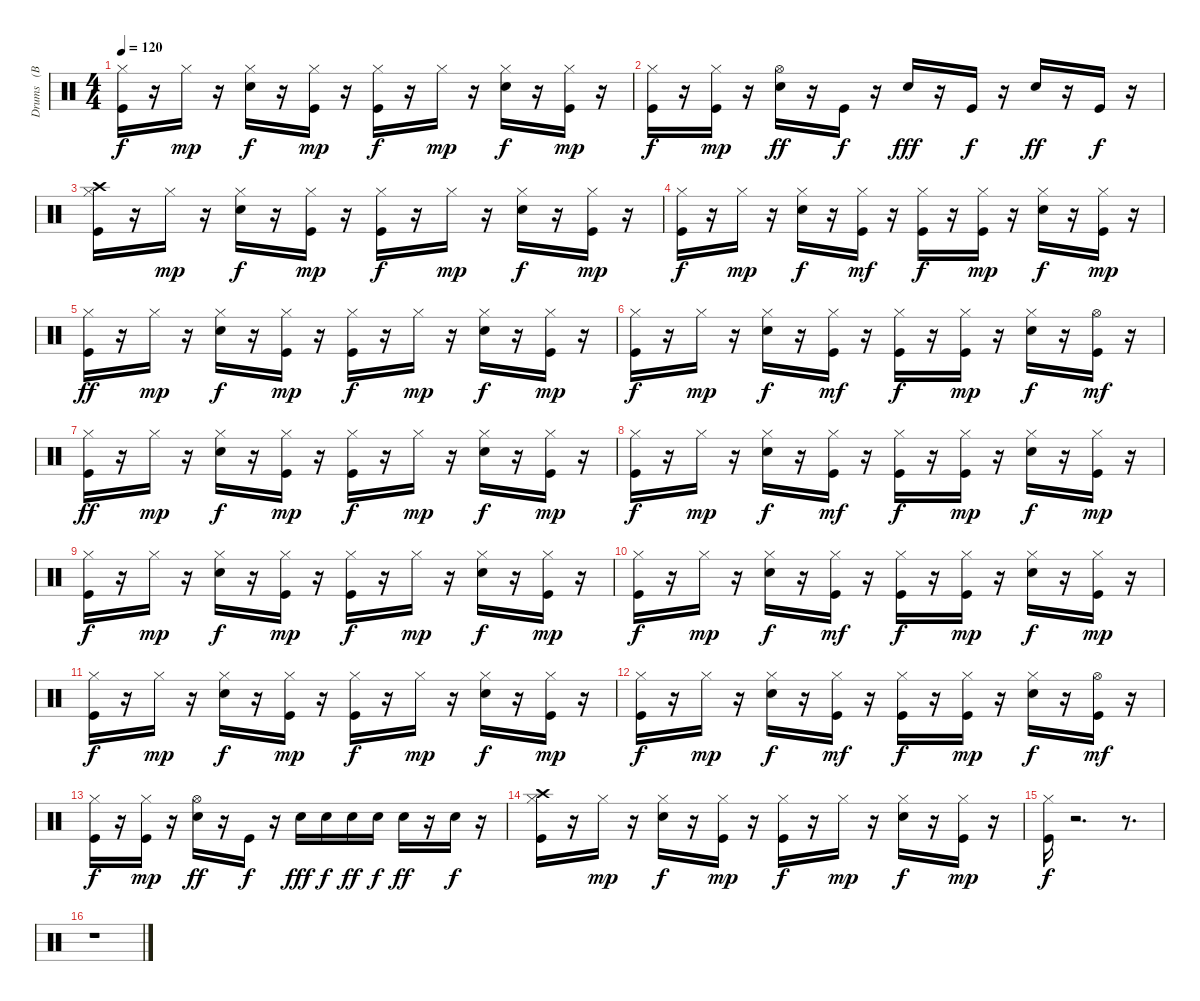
\track ("Drums   (BB)" "Drums   (B") {instrument percussion}
\staff {score}
\articulation defaults
\ts (4 4)
\tempo 120
\clef neutral
\ks c
("Kick (hit)" "Hi-Hat (closed)").16{dy f} r.16 "Hi-Hat (closed)".16{dy mp} r.16 ("Snare (hit) 2" "Hi-Hat (closed)").16{dy f} r.16 ("Kick (hit)" "Hi-Hat (closed)").16{dy mp} r.16 ("Kick (hit)" "Hi-Hat (closed)").16{dy f} r.16 "Hi-Hat (closed)".16{dy mp} r.16 ("Snare (hit) 2" "Hi-Hat (closed)").16{dy f} r.16 ("Kick (hit)" "Hi-Hat (closed)").16{dy mp} r.16 |
("Kick (hit)" "Hi-Hat (closed)").16{dy f} r.16 ("Kick (hit)" "Hi-Hat (closed)").16{dy mp} r.16 ("Snare (hit) 2" "Hi-Hat (open)").16{dy ff} r.16 "Kick (hit)".16{dy f} r.16 "Snare (hit) 2".16{dy fff} r.16 "Kick (hit)".16{dy f} r.16 "Snare (hit) 2".16{dy ff} r.16 "Kick (hit)".16{dy f} r.16 |
("Kick (hit)" "Hi-Hat (closed)" "Crash high (hit)").16 r.16 "Hi-Hat (closed)".16{dy mp} r.16 ("Snare (hit) 2" "Hi-Hat (closed)").16{dy f} r.16 ("Kick (hit)" "Hi-Hat (closed)").16{dy mp} r.16 ("Kick (hit)" "Hi-Hat (closed)").16{dy f} r.16 "Hi-Hat (closed)".16{dy mp} r.16 ("Snare (hit) 2" "Hi-Hat (closed)").16{dy f} r.16 ("Kick (hit)" "Hi-Hat (closed)").16{dy mp} r.16 |
("Kick (hit)" "Hi-Hat (closed)").16{dy f} r.16 "Hi-Hat (closed)".16{dy mp} r.16 ("Snare (hit) 2" "Hi-Hat (closed)").16{dy f} r.16 ("Kick (hit)" "Hi-Hat (closed)").16{dy mf} r.16 ("Kick (hit)" "Hi-Hat (closed)").16{dy f} r.16 ("Kick (hit)" "Hi-Hat (closed)").16{dy mp} r.16 ("Snare (hit) 2" "Hi-Hat (closed)").16{dy f} r.16 ("Kick (hit)" "Hi-Hat (closed)").16{dy mp} r.16 |
("Kick (hit)" "Hi-Hat (closed)").16{dy ff} r.16 "Hi-Hat (closed)".16{dy mp} r.16 ("Snare (hit) 2" "Hi-Hat (closed)").16{dy f} r.16 ("Kick (hit)" "Hi-Hat (closed)").16{dy mp} r.16 ("Kick (hit)" "Hi-Hat (closed)").16{dy f} r.16 "Hi-Hat (closed)".16{dy mp} r.16 ("Snare (hit) 2" "Hi-Hat (closed)").16{dy f} r.16 ("Kick (hit)" "Hi-Hat (closed)").16{dy mp} r.16 |
("Kick (hit)" "Hi-Hat (closed)").16{dy f} r.16 "Hi-Hat (closed)".16{dy mp} r.16 ("Snare (hit) 2" "Hi-Hat (closed)").16{dy f} r.16 ("Kick (hit)" "Hi-Hat (closed)").16{dy mf} r.16 ("Kick (hit)" "Hi-Hat (closed)").16{dy f} r.16 ("Kick (hit)" "Hi-Hat (closed)").16{dy mp} r.16 ("Snare (hit) 2" "Hi-Hat (closed)").16{dy f} r.16 ("Kick (hit)" "Hi-Hat (open)").16{dy mf} r.16 |
("Kick (hit)" "Hi-Hat (closed)").16{dy ff} r.16 "Hi-Hat (closed)".16{dy mp} r.16 ("Snare (hit) 2" "Hi-Hat (closed)").16{dy f} r.16 ("Kick (hit)" "Hi-Hat (closed)").16{dy mp} r.16 ("Kick (hit)" "Hi-Hat (closed)").16{dy f} r.16 "Hi-Hat (closed)".16{dy mp} r.16 ("Snare (hit) 2" "Hi-Hat (closed)").16{dy f} r.16 ("Kick (hit)" "Hi-Hat (closed)").16{dy mp} r.16 |
("Kick (hit)" "Hi-Hat (closed)").16{dy f} r.16 "Hi-Hat (closed)".16{dy mp} r.16 ("Snare (hit) 2" "Hi-Hat (closed)").16{dy f} r.16 ("Kick (hit)" "Hi-Hat (closed)").16{dy mf} r.16 ("Kick (hit)" "Hi-Hat (closed)").16{dy f} r.16 ("Kick (hit)" "Hi-Hat (closed)").16{dy mp} r.16 ("Snare (hit) 2" "Hi-Hat (closed)").16{dy f} r.16 ("Kick (hit)" "Hi-Hat (closed)").16{dy mp} r.16 |
("Kick (hit)" "Hi-Hat (closed)").16{dy f} r.16 "Hi-Hat (closed)".16{dy mp} r.16 ("Snare (hit) 2" "Hi-Hat (closed)").16{dy f} r.16 ("Kick (hit)" "Hi-Hat (closed)").16{dy mp} r.16 ("Kick (hit)" "Hi-Hat (closed)").16{dy f} r.16 "Hi-Hat (closed)".16{dy mp} r.16 ("Snare (hit) 2" "Hi-Hat (closed)").16{dy f} r.16 ("Kick (hit)" "Hi-Hat (closed)").16{dy mp} r.16 |
("Kick (hit)" "Hi-Hat (closed)").16{dy f} r.16 "Hi-Hat (closed)".16{dy mp} r.16 ("Snare (hit) 2" "Hi-Hat (closed)").16{dy f} r.16 ("Kick (hit)" "Hi-Hat (closed)").16{dy mf} r.16 ("Kick (hit)" "Hi-Hat (closed)").16{dy f} r.16 ("Kick (hit)" "Hi-Hat (closed)").16{dy mp} r.16 ("Snare (hit) 2" "Hi-Hat (closed)").16{dy f} r.16 ("Kick (hit)" "Hi-Hat (closed)").16{dy mp} r.16 |
("Kick (hit)" "Hi-Hat (closed)").16{dy f} r.16 "Hi-Hat (closed)".16{dy mp} r.16 ("Snare (hit) 2" "Hi-Hat (closed)").16{dy f} r.16 ("Kick (hit)" "Hi-Hat (closed)").16{dy mp} r.16 ("Kick (hit)" "Hi-Hat (closed)").16{dy f} r.16 "Hi-Hat (closed)".16{dy mp} r.16 ("Snare (hit) 2" "Hi-Hat (closed)").16{dy f} r.16 ("Kick (hit)" "Hi-Hat (closed)").16{dy mp} r.16 |
("Kick (hit)" "Hi-Hat (closed)").16{dy f} r.16 "Hi-Hat (closed)".16{dy mp} r.16 ("Snare (hit) 2" "Hi-Hat (closed)").16{dy f} r.16 ("Kick (hit)" "Hi-Hat (closed)").16{dy mf} r.16 ("Kick (hit)" "Hi-Hat (closed)").16{dy f} r.16 ("Kick (hit)" "Hi-Hat (closed)").16{dy mp} r.16 ("Snare (hit) 2" "Hi-Hat (closed)").16{dy f} r.16 ("Kick (hit)" "Hi-Hat (open)").16{dy mf} r.16 |
("Kick (hit)" "Hi-Hat (closed)").16{dy f} r.16 ("Kick (hit)" "Hi-Hat (closed)").16{dy mp} r.16 ("Snare (hit) 2" "Hi-Hat (open)").16{dy ff} r.16 "Kick (hit)".16{dy f} r.16 "Snare (hit) 2".16{dy fff} "Snare (hit) 2".16{dy f} "Snare (hit) 2".16{dy ff} "Snare (hit) 2".16{dy f} "Snare (hit) 2".16{dy ff} r.16 "Snare (hit) 2".16{dy f} r.16 |
("Kick (hit)" "Hi-Hat (closed)" "Crash high (hit)").16 r.16 "Hi-Hat (closed)".16{dy mp} r.16 ("Snare (hit) 2" "Hi-Hat (closed)").16{dy f} r.16 ("Kick (hit)" "Hi-Hat (closed)").16{dy mp} r.16 ("Kick (hit)" "Hi-Hat (closed)").16{dy f} r.16 "Hi-Hat (closed)".16{dy mp} r.16 ("Snare (hit) 2" "Hi-Hat (closed)").16{dy f} r.16 ("Kick (hit)" "Hi-Hat (closed)").16{dy mp} r.16 |
("Kick (hit)" "Hi-Hat (closed)").16{dy f} r.2{d} r.8{d} |
r.1
